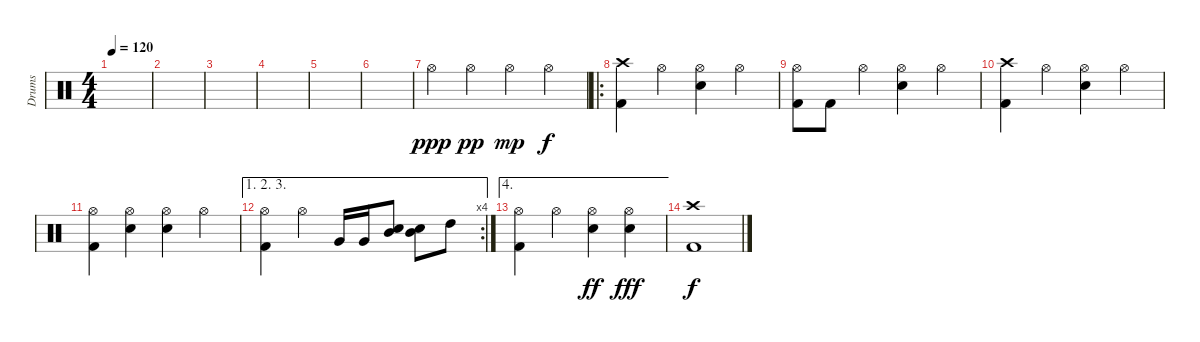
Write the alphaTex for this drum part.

\track ("Drums" "Drums") {instrument percussion}
\staff {score}
\articulation defaults
\ts (4 4)
\tempo 120
\clef neutral
\ks c
|
|
|
|
|
|
"Hi-Hat (open)".4{dy ppp} "Hi-Hat (open)".4{dy pp} "Hi-Hat (open)".4{dy mp} "Hi-Hat (open)".4{dy f} |
\ro
("Crash high (hit)" "Kick (hit) 2").4 "Hi-Hat (open)".4 ("Hi-Hat (open)" "Snare (hit) 2").4 "Hi-Hat (open)".4 |
("Hi-Hat (open)" "Kick (hit) 2").8 "Kick (hit) 2".8 "Hi-Hat (open)".4 ("Hi-Hat (open)" "Snare (hit) 2").4 "Hi-Hat (open)".4 |
("Crash high (hit)" "Kick (hit) 2").4 "Hi-Hat (open)".4 ("Hi-Hat (open)" "Snare (hit) 2").4 "Hi-Hat (open)".4 |
("Hi-Hat (open)" "Kick (hit) 2").4 ("Hi-Hat (open)" "Snare (hit) 2").4 ("Hi-Hat (open)" "Snare (hit) 2").4 "Hi-Hat (open)".4 |
\ae (1 2 3)
\rc 4
("Hi-Hat (open)" "Kick (hit) 2").4 "Hi-Hat (open)".4 "Very Low Tom (hit)".16 "Very Low Tom (hit)".16 ("Snare (hit) 2" "Mid Tom (hit)").8 ("Snare (hit) 2" "Mid Tom (hit)").8 "High Tom (hit)".8 |
\ae 4
("Hi-Hat (open)" "Kick (hit) 2").4 "Hi-Hat (open)".4 ("Hi-Hat (open)" "Snare (hit) 2").4{dy ff} ("Hi-Hat (open)" "Snare (hit) 2").4{dy fff} |
("Crash high (hit)" "Kick (hit) 2").1{dy f}
